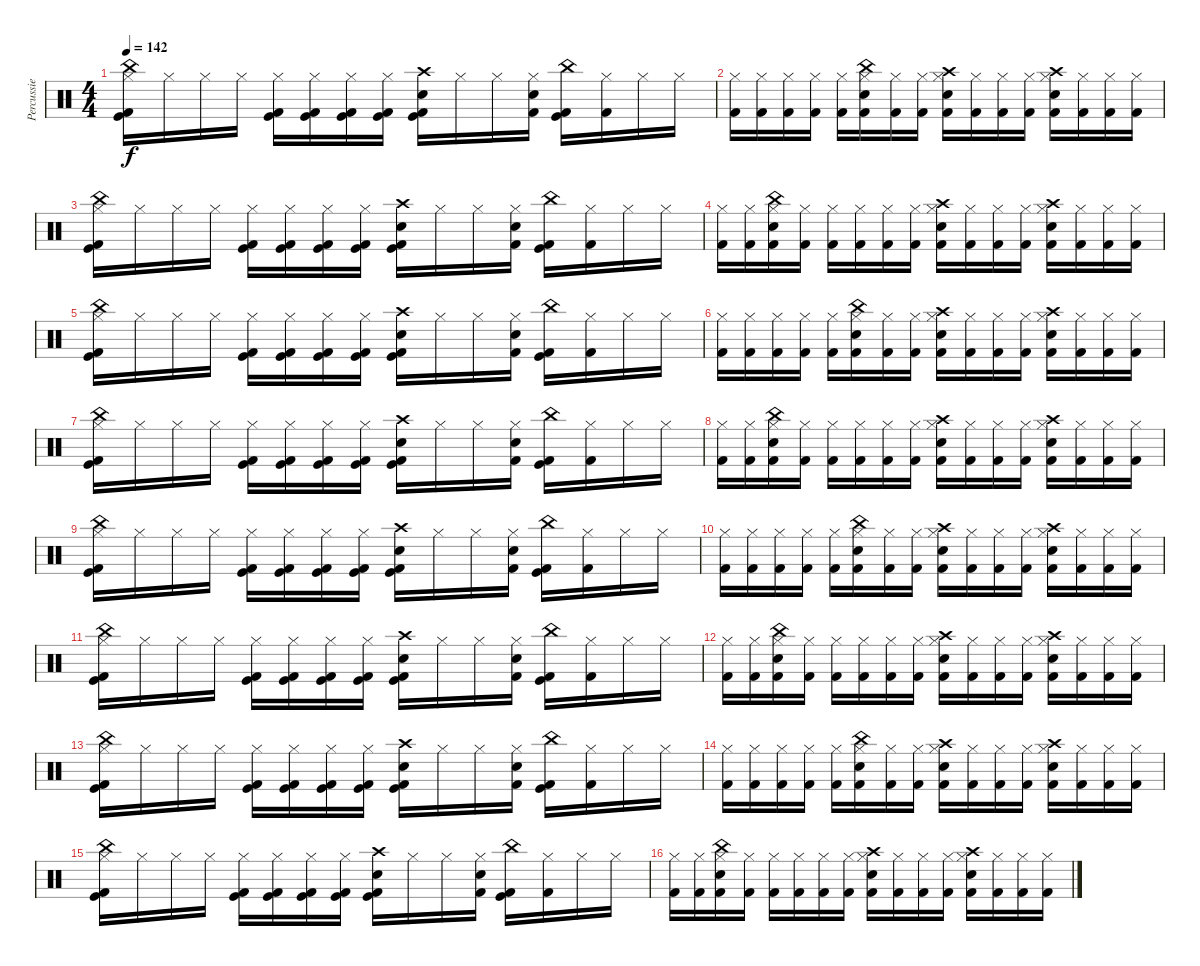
\track ("Percussie" "Percussie") {instrument percussion}
\staff {score}
\articulation defaults
\ts (4 4)
\tempo 142
\clef neutral
\ks c
("Kick (hit)" "Kick (hit) 2" "Hi-Hat (closed)" "China (hit)").16{dy f} "Hi-Hat (closed)".16 "Hi-Hat (closed)".16 "Hi-Hat (closed)".16 ("Kick (hit) 2" "Kick (hit)" "Hi-Hat (closed)").16 ("Kick (hit) 2" "Kick (hit)" "Hi-Hat (closed)").16 ("Kick (hit) 2" "Kick (hit)" "Hi-Hat (closed)").16 ("Kick (hit) 2" "Kick (hit)" "Hi-Hat (closed)").16 ("Kick (hit) 2" "Kick (hit)" "Electric Snare (hit)" "Crash high (hit)").16 "Hi-Hat (closed)".16 "Hi-Hat (closed)".16 ("Kick (hit) 2" "Electric Snare (hit)" "Hi-Hat (closed)").16 ("Kick (hit) 2" "Kick (hit)" "China (hit)").16 ("Kick (hit) 2" "Hi-Hat (closed)").16 "Hi-Hat (closed)".16 "Hi-Hat (closed)".16 |
("Kick (hit) 2" "Hi-Hat (closed)").16 ("Kick (hit) 2" "Hi-Hat (closed)").16 ("Kick (hit) 2" "Hi-Hat (closed)").16 ("Kick (hit) 2" "Hi-Hat (closed)").16 ("Kick (hit) 2" "Hi-Hat (closed)").16 ("Kick (hit) 2" "Electric Snare (hit)" "Hi-Hat (closed)" "China (hit)").16 ("Kick (hit) 2" "Hi-Hat (closed)").16 ("Kick (hit) 2" "Hi-Hat (closed)").16 ("Kick (hit) 2" "Electric Snare (hit)" "Hi-Hat (closed)" "Crash high (hit)").16 ("Kick (hit) 2" "Hi-Hat (closed)").16 ("Kick (hit) 2" "Hi-Hat (closed)").16 ("Kick (hit) 2" "Hi-Hat (closed)").16 ("Kick (hit) 2" "Electric Snare (hit)" "Hi-Hat (closed)" "Crash high (hit)").16 ("Kick (hit) 2" "Hi-Hat (closed)").16 ("Kick (hit) 2" "Hi-Hat (closed)").16 ("Kick (hit) 2" "Hi-Hat (closed)").16 |
("Kick (hit)" "Kick (hit) 2" "Hi-Hat (closed)" "China (hit)").16 "Hi-Hat (closed)".16 "Hi-Hat (closed)".16 "Hi-Hat (closed)".16 ("Kick (hit) 2" "Kick (hit)" "Hi-Hat (closed)").16 ("Kick (hit) 2" "Kick (hit)" "Hi-Hat (closed)").16 ("Kick (hit) 2" "Kick (hit)" "Hi-Hat (closed)").16 ("Kick (hit) 2" "Kick (hit)" "Hi-Hat (closed)").16 ("Kick (hit) 2" "Kick (hit)" "Electric Snare (hit)" "Crash high (hit)").16 "Hi-Hat (closed)".16 "Hi-Hat (closed)".16 ("Kick (hit) 2" "Electric Snare (hit)" "Hi-Hat (closed)").16 ("Kick (hit) 2" "Kick (hit)" "China (hit)").16 ("Kick (hit) 2" "Hi-Hat (closed)").16 "Hi-Hat (closed)".16 "Hi-Hat (closed)".16 |
("Kick (hit) 2" "Hi-Hat (closed)").16 ("Kick (hit) 2" "Hi-Hat (closed)").16 ("Kick (hit) 2" "Electric Snare (hit)" "Hi-Hat (closed)" "China (hit)").16 ("Kick (hit) 2" "Hi-Hat (closed)").16 ("Kick (hit) 2" "Hi-Hat (closed)").16 ("Kick (hit) 2" "Hi-Hat (closed)").16 ("Kick (hit) 2" "Hi-Hat (closed)").16 ("Kick (hit) 2" "Hi-Hat (closed)").16 ("Kick (hit) 2" "Electric Snare (hit)" "Hi-Hat (closed)" "Crash high (hit)").16 ("Kick (hit) 2" "Hi-Hat (closed)").16 ("Kick (hit) 2" "Hi-Hat (closed)").16 ("Kick (hit) 2" "Hi-Hat (closed)").16 ("Kick (hit) 2" "Electric Snare (hit)" "Hi-Hat (closed)" "Crash high (hit)").16 ("Kick (hit) 2" "Hi-Hat (closed)").16 ("Kick (hit) 2" "Hi-Hat (closed)").16 ("Kick (hit) 2" "Hi-Hat (closed)").16 |
("Kick (hit)" "Kick (hit) 2" "Hi-Hat (closed)" "China (hit)").16 "Hi-Hat (closed)".16 "Hi-Hat (closed)".16 "Hi-Hat (closed)".16 ("Kick (hit) 2" "Kick (hit)" "Hi-Hat (closed)").16 ("Kick (hit) 2" "Kick (hit)" "Hi-Hat (closed)").16 ("Kick (hit) 2" "Kick (hit)" "Hi-Hat (closed)").16 ("Kick (hit) 2" "Kick (hit)" "Hi-Hat (closed)").16 ("Kick (hit) 2" "Kick (hit)" "Electric Snare (hit)" "Crash high (hit)").16 "Hi-Hat (closed)".16 "Hi-Hat (closed)".16 ("Kick (hit) 2" "Electric Snare (hit)" "Hi-Hat (closed)").16 ("Kick (hit) 2" "Kick (hit)" "China (hit)").16 ("Kick (hit) 2" "Hi-Hat (closed)").16 "Hi-Hat (closed)".16 "Hi-Hat (closed)".16 |
("Kick (hit) 2" "Hi-Hat (closed)").16 ("Kick (hit) 2" "Hi-Hat (closed)").16 ("Kick (hit) 2" "Hi-Hat (closed)").16 ("Kick (hit) 2" "Hi-Hat (closed)").16 ("Kick (hit) 2" "Hi-Hat (closed)").16 ("Kick (hit) 2" "Electric Snare (hit)" "Hi-Hat (closed)" "China (hit)").16 ("Kick (hit) 2" "Hi-Hat (closed)").16 ("Kick (hit) 2" "Hi-Hat (closed)").16 ("Kick (hit) 2" "Electric Snare (hit)" "Hi-Hat (closed)" "Crash high (hit)").16 ("Kick (hit) 2" "Hi-Hat (closed)").16 ("Kick (hit) 2" "Hi-Hat (closed)").16 ("Kick (hit) 2" "Hi-Hat (closed)").16 ("Kick (hit) 2" "Electric Snare (hit)" "Hi-Hat (closed)" "Crash high (hit)").16 ("Kick (hit) 2" "Hi-Hat (closed)").16 ("Kick (hit) 2" "Hi-Hat (closed)").16 ("Kick (hit) 2" "Hi-Hat (closed)").16 |
("Kick (hit)" "Kick (hit) 2" "Hi-Hat (closed)" "China (hit)").16 "Hi-Hat (closed)".16 "Hi-Hat (closed)".16 "Hi-Hat (closed)".16 ("Kick (hit) 2" "Kick (hit)" "Hi-Hat (closed)").16 ("Kick (hit) 2" "Kick (hit)" "Hi-Hat (closed)").16 ("Kick (hit) 2" "Kick (hit)" "Hi-Hat (closed)").16 ("Kick (hit) 2" "Kick (hit)" "Hi-Hat (closed)").16 ("Kick (hit) 2" "Kick (hit)" "Electric Snare (hit)" "Crash high (hit)").16 "Hi-Hat (closed)".16 "Hi-Hat (closed)".16 ("Kick (hit) 2" "Electric Snare (hit)" "Hi-Hat (closed)").16 ("Kick (hit) 2" "Kick (hit)" "China (hit)").16 ("Kick (hit) 2" "Hi-Hat (closed)").16 "Hi-Hat (closed)".16 "Hi-Hat (closed)".16 |
("Kick (hit) 2" "Hi-Hat (closed)").16 ("Kick (hit) 2" "Hi-Hat (closed)").16 ("Kick (hit) 2" "Electric Snare (hit)" "Hi-Hat (closed)" "China (hit)").16 ("Kick (hit) 2" "Hi-Hat (closed)").16 ("Kick (hit) 2" "Hi-Hat (closed)").16 ("Kick (hit) 2" "Hi-Hat (closed)").16 ("Kick (hit) 2" "Hi-Hat (closed)").16 ("Kick (hit) 2" "Hi-Hat (closed)").16 ("Kick (hit) 2" "Electric Snare (hit)" "Hi-Hat (closed)" "Crash high (hit)").16 ("Kick (hit) 2" "Hi-Hat (closed)").16 ("Kick (hit) 2" "Hi-Hat (closed)").16 ("Kick (hit) 2" "Hi-Hat (closed)").16 ("Kick (hit) 2" "Electric Snare (hit)" "Hi-Hat (closed)" "Crash high (hit)").16 ("Kick (hit) 2" "Hi-Hat (closed)").16 ("Kick (hit) 2" "Hi-Hat (closed)").16 ("Kick (hit) 2" "Hi-Hat (closed)").16 |
("Kick (hit)" "Kick (hit) 2" "Hi-Hat (closed)" "China (hit)").16 "Hi-Hat (closed)".16 "Hi-Hat (closed)".16 "Hi-Hat (closed)".16 ("Kick (hit) 2" "Kick (hit)" "Hi-Hat (closed)").16 ("Kick (hit) 2" "Kick (hit)" "Hi-Hat (closed)").16 ("Kick (hit) 2" "Kick (hit)" "Hi-Hat (closed)").16 ("Kick (hit) 2" "Kick (hit)" "Hi-Hat (closed)").16 ("Kick (hit) 2" "Kick (hit)" "Electric Snare (hit)" "Crash high (hit)").16 "Hi-Hat (closed)".16 "Hi-Hat (closed)".16 ("Kick (hit) 2" "Electric Snare (hit)" "Hi-Hat (closed)").16 ("Kick (hit) 2" "Kick (hit)" "China (hit)").16 ("Kick (hit) 2" "Hi-Hat (closed)").16 "Hi-Hat (closed)".16 "Hi-Hat (closed)".16 |
("Kick (hit) 2" "Hi-Hat (closed)").16 ("Kick (hit) 2" "Hi-Hat (closed)").16 ("Kick (hit) 2" "Hi-Hat (closed)").16 ("Kick (hit) 2" "Hi-Hat (closed)").16 ("Kick (hit) 2" "Hi-Hat (closed)").16 ("Kick (hit) 2" "Electric Snare (hit)" "Hi-Hat (closed)" "China (hit)").16 ("Kick (hit) 2" "Hi-Hat (closed)").16 ("Kick (hit) 2" "Hi-Hat (closed)").16 ("Kick (hit) 2" "Electric Snare (hit)" "Hi-Hat (closed)" "Crash high (hit)").16 ("Kick (hit) 2" "Hi-Hat (closed)").16 ("Kick (hit) 2" "Hi-Hat (closed)").16 ("Kick (hit) 2" "Hi-Hat (closed)").16 ("Kick (hit) 2" "Electric Snare (hit)" "Hi-Hat (closed)" "Crash high (hit)").16 ("Kick (hit) 2" "Hi-Hat (closed)").16 ("Kick (hit) 2" "Hi-Hat (closed)").16 ("Kick (hit) 2" "Hi-Hat (closed)").16 |
("Kick (hit)" "Kick (hit) 2" "Hi-Hat (closed)" "China (hit)").16 "Hi-Hat (closed)".16 "Hi-Hat (closed)".16 "Hi-Hat (closed)".16 ("Kick (hit) 2" "Kick (hit)" "Hi-Hat (closed)").16 ("Kick (hit) 2" "Kick (hit)" "Hi-Hat (closed)").16 ("Kick (hit) 2" "Kick (hit)" "Hi-Hat (closed)").16 ("Kick (hit) 2" "Kick (hit)" "Hi-Hat (closed)").16 ("Kick (hit) 2" "Kick (hit)" "Electric Snare (hit)" "Crash high (hit)").16 "Hi-Hat (closed)".16 "Hi-Hat (closed)".16 ("Kick (hit) 2" "Electric Snare (hit)" "Hi-Hat (closed)").16 ("Kick (hit) 2" "Kick (hit)" "China (hit)").16 ("Kick (hit) 2" "Hi-Hat (closed)").16 "Hi-Hat (closed)".16 "Hi-Hat (closed)".16 |
("Kick (hit) 2" "Hi-Hat (closed)").16 ("Kick (hit) 2" "Hi-Hat (closed)").16 ("Kick (hit) 2" "Electric Snare (hit)" "Hi-Hat (closed)" "China (hit)").16 ("Kick (hit) 2" "Hi-Hat (closed)").16 ("Kick (hit) 2" "Hi-Hat (closed)").16 ("Kick (hit) 2" "Hi-Hat (closed)").16 ("Kick (hit) 2" "Hi-Hat (closed)").16 ("Kick (hit) 2" "Hi-Hat (closed)").16 ("Kick (hit) 2" "Electric Snare (hit)" "Hi-Hat (closed)" "Crash high (hit)").16 ("Kick (hit) 2" "Hi-Hat (closed)").16 ("Kick (hit) 2" "Hi-Hat (closed)").16 ("Kick (hit) 2" "Hi-Hat (closed)").16 ("Kick (hit) 2" "Electric Snare (hit)" "Hi-Hat (closed)" "Crash high (hit)").16 ("Kick (hit) 2" "Hi-Hat (closed)").16 ("Kick (hit) 2" "Hi-Hat (closed)").16 ("Kick (hit) 2" "Hi-Hat (closed)").16 |
("Kick (hit)" "Kick (hit) 2" "Hi-Hat (closed)" "China (hit)").16 "Hi-Hat (closed)".16 "Hi-Hat (closed)".16 "Hi-Hat (closed)".16 ("Kick (hit) 2" "Kick (hit)" "Hi-Hat (closed)").16 ("Kick (hit) 2" "Kick (hit)" "Hi-Hat (closed)").16 ("Kick (hit) 2" "Kick (hit)" "Hi-Hat (closed)").16 ("Kick (hit) 2" "Kick (hit)" "Hi-Hat (closed)").16 ("Kick (hit) 2" "Kick (hit)" "Electric Snare (hit)" "Crash high (hit)").16 "Hi-Hat (closed)".16 "Hi-Hat (closed)".16 ("Kick (hit) 2" "Electric Snare (hit)" "Hi-Hat (closed)").16 ("Kick (hit) 2" "Kick (hit)" "China (hit)").16 ("Kick (hit) 2" "Hi-Hat (closed)").16 "Hi-Hat (closed)".16 "Hi-Hat (closed)".16 |
("Kick (hit) 2" "Hi-Hat (closed)").16 ("Kick (hit) 2" "Hi-Hat (closed)").16 ("Kick (hit) 2" "Hi-Hat (closed)").16 ("Kick (hit) 2" "Hi-Hat (closed)").16 ("Kick (hit) 2" "Hi-Hat (closed)").16 ("Kick (hit) 2" "Electric Snare (hit)" "Hi-Hat (closed)" "China (hit)").16 ("Kick (hit) 2" "Hi-Hat (closed)").16 ("Kick (hit) 2" "Hi-Hat (closed)").16 ("Kick (hit) 2" "Electric Snare (hit)" "Hi-Hat (closed)" "Crash high (hit)").16 ("Kick (hit) 2" "Hi-Hat (closed)").16 ("Kick (hit) 2" "Hi-Hat (closed)").16 ("Kick (hit) 2" "Hi-Hat (closed)").16 ("Kick (hit) 2" "Electric Snare (hit)" "Hi-Hat (closed)" "Crash high (hit)").16 ("Kick (hit) 2" "Hi-Hat (closed)").16 ("Kick (hit) 2" "Hi-Hat (closed)").16 ("Kick (hit) 2" "Hi-Hat (closed)").16 |
("Kick (hit)" "Kick (hit) 2" "Hi-Hat (closed)" "China (hit)").16 "Hi-Hat (closed)".16 "Hi-Hat (closed)".16 "Hi-Hat (closed)".16 ("Kick (hit) 2" "Kick (hit)" "Hi-Hat (closed)").16 ("Kick (hit) 2" "Kick (hit)" "Hi-Hat (closed)").16 ("Kick (hit) 2" "Kick (hit)" "Hi-Hat (closed)").16 ("Kick (hit) 2" "Kick (hit)" "Hi-Hat (closed)").16 ("Kick (hit) 2" "Kick (hit)" "Electric Snare (hit)" "Crash high (hit)").16 "Hi-Hat (closed)".16 "Hi-Hat (closed)".16 ("Kick (hit) 2" "Electric Snare (hit)" "Hi-Hat (closed)").16 ("Kick (hit) 2" "Kick (hit)" "China (hit)").16 ("Kick (hit) 2" "Hi-Hat (closed)").16 "Hi-Hat (closed)".16 "Hi-Hat (closed)".16 |
("Kick (hit) 2" "Hi-Hat (closed)").16 ("Kick (hit) 2" "Hi-Hat (closed)").16 ("Kick (hit) 2" "Electric Snare (hit)" "Hi-Hat (closed)" "China (hit)").16 ("Kick (hit) 2" "Hi-Hat (closed)").16 ("Kick (hit) 2" "Hi-Hat (closed)").16 ("Kick (hit) 2" "Hi-Hat (closed)").16 ("Kick (hit) 2" "Hi-Hat (closed)").16 ("Kick (hit) 2" "Hi-Hat (closed)").16 ("Kick (hit) 2" "Electric Snare (hit)" "Hi-Hat (closed)" "Crash high (hit)").16 ("Kick (hit) 2" "Hi-Hat (closed)").16 ("Kick (hit) 2" "Hi-Hat (closed)").16 ("Kick (hit) 2" "Hi-Hat (closed)").16 ("Kick (hit) 2" "Electric Snare (hit)" "Hi-Hat (closed)" "Crash high (hit)").16 ("Kick (hit) 2" "Hi-Hat (closed)").16 ("Kick (hit) 2" "Hi-Hat (closed)").16 ("Kick (hit) 2" "Hi-Hat (closed)").16
